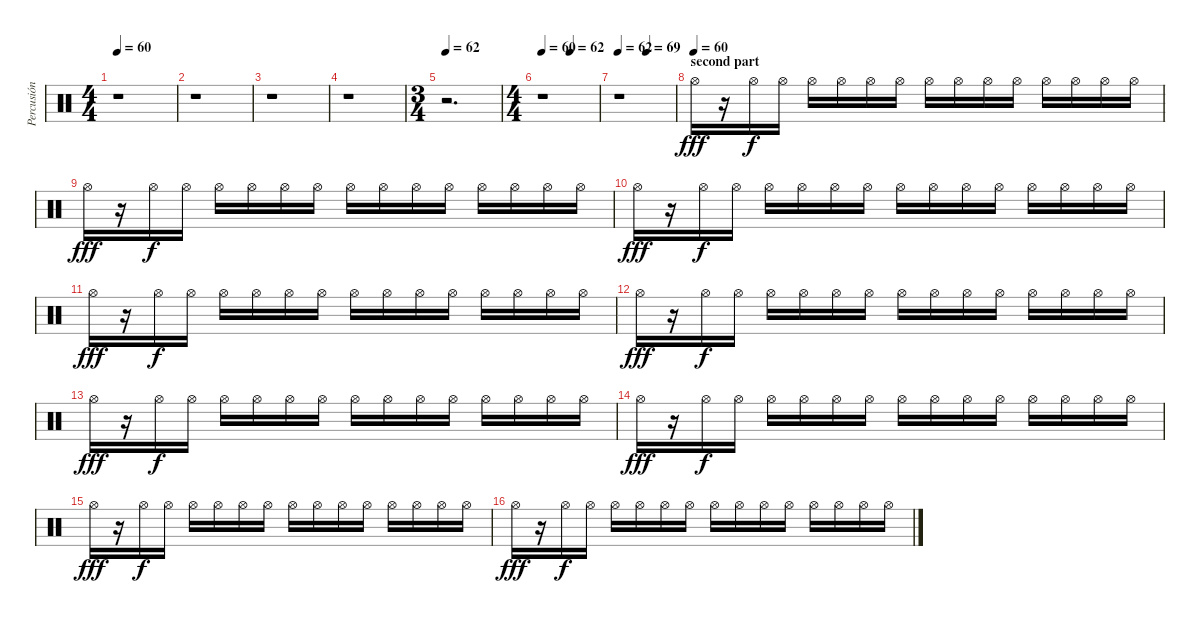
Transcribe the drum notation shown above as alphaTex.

\track ("Percusión" "Percusión") {instrument percussion}
\staff {score}
\articulation defaults
\ts (4 4)
\tempo 60
\clef neutral
\ks c
r.1{dy fff} |
r.1 |
r.1 |
r.1 |
\ts (3 4)
\tempo 62
r.2{d} |
\ts (4 4)
\tempo 60
\tempo (62 0.5)
r.1 |
\tempo 62
\tempo (69 0.5)
r.1 |
\section ("" "second part")
\tempo (60)
"Hi-Hat (open)".16 r.16 "Hi-Hat (open)".16{dy f} "Hi-Hat (open)".16 "Hi-Hat (open)".16 "Hi-Hat (open)".16 "Hi-Hat (open)".16 "Hi-Hat (open)".16 "Hi-Hat (open)".16 "Hi-Hat (open)".16 "Hi-Hat (open)".16 "Hi-Hat (open)".16 "Hi-Hat (open)".16 "Hi-Hat (open)".16 "Hi-Hat (open)".16 "Hi-Hat (open)".16 |
"Hi-Hat (open)".16{dy fff} r.16 "Hi-Hat (open)".16{dy f} "Hi-Hat (open)".16 "Hi-Hat (open)".16 "Hi-Hat (open)".16 "Hi-Hat (open)".16 "Hi-Hat (open)".16 "Hi-Hat (open)".16 "Hi-Hat (open)".16 "Hi-Hat (open)".16 "Hi-Hat (open)".16 "Hi-Hat (open)".16 "Hi-Hat (open)".16 "Hi-Hat (open)".16 "Hi-Hat (open)".16 |
"Hi-Hat (open)".16{dy fff} r.16 "Hi-Hat (open)".16{dy f} "Hi-Hat (open)".16 "Hi-Hat (open)".16 "Hi-Hat (open)".16 "Hi-Hat (open)".16 "Hi-Hat (open)".16 "Hi-Hat (open)".16 "Hi-Hat (open)".16 "Hi-Hat (open)".16 "Hi-Hat (open)".16 "Hi-Hat (open)".16 "Hi-Hat (open)".16 "Hi-Hat (open)".16 "Hi-Hat (open)".16 |
"Hi-Hat (open)".16{dy fff} r.16 "Hi-Hat (open)".16{dy f} "Hi-Hat (open)".16 "Hi-Hat (open)".16 "Hi-Hat (open)".16 "Hi-Hat (open)".16 "Hi-Hat (open)".16 "Hi-Hat (open)".16 "Hi-Hat (open)".16 "Hi-Hat (open)".16 "Hi-Hat (open)".16 "Hi-Hat (open)".16 "Hi-Hat (open)".16 "Hi-Hat (open)".16 "Hi-Hat (open)".16 |
"Hi-Hat (open)".16{dy fff} r.16 "Hi-Hat (open)".16{dy f} "Hi-Hat (open)".16 "Hi-Hat (open)".16 "Hi-Hat (open)".16 "Hi-Hat (open)".16 "Hi-Hat (open)".16 "Hi-Hat (open)".16 "Hi-Hat (open)".16 "Hi-Hat (open)".16 "Hi-Hat (open)".16 "Hi-Hat (open)".16 "Hi-Hat (open)".16 "Hi-Hat (open)".16 "Hi-Hat (open)".16 |
"Hi-Hat (open)".16{dy fff} r.16 "Hi-Hat (open)".16{dy f} "Hi-Hat (open)".16 "Hi-Hat (open)".16 "Hi-Hat (open)".16 "Hi-Hat (open)".16 "Hi-Hat (open)".16 "Hi-Hat (open)".16 "Hi-Hat (open)".16 "Hi-Hat (open)".16 "Hi-Hat (open)".16 "Hi-Hat (open)".16 "Hi-Hat (open)".16 "Hi-Hat (open)".16 "Hi-Hat (open)".16 |
"Hi-Hat (open)".16{dy fff} r.16 "Hi-Hat (open)".16{dy f} "Hi-Hat (open)".16 "Hi-Hat (open)".16 "Hi-Hat (open)".16 "Hi-Hat (open)".16 "Hi-Hat (open)".16 "Hi-Hat (open)".16 "Hi-Hat (open)".16 "Hi-Hat (open)".16 "Hi-Hat (open)".16 "Hi-Hat (open)".16 "Hi-Hat (open)".16 "Hi-Hat (open)".16 "Hi-Hat (open)".16 |
"Hi-Hat (open)".16{dy fff} r.16 "Hi-Hat (open)".16{dy f} "Hi-Hat (open)".16 "Hi-Hat (open)".16 "Hi-Hat (open)".16 "Hi-Hat (open)".16 "Hi-Hat (open)".16 "Hi-Hat (open)".16 "Hi-Hat (open)".16 "Hi-Hat (open)".16 "Hi-Hat (open)".16 "Hi-Hat (open)".16 "Hi-Hat (open)".16 "Hi-Hat (open)".16 "Hi-Hat (open)".16 |
"Hi-Hat (open)".16{dy fff} r.16 "Hi-Hat (open)".16{dy f} "Hi-Hat (open)".16 "Hi-Hat (open)".16 "Hi-Hat (open)".16 "Hi-Hat (open)".16 "Hi-Hat (open)".16 "Hi-Hat (open)".16 "Hi-Hat (open)".16 "Hi-Hat (open)".16 "Hi-Hat (open)".16 "Hi-Hat (open)".16 "Hi-Hat (open)".16 "Hi-Hat (open)".16 "Hi-Hat (open)".16
